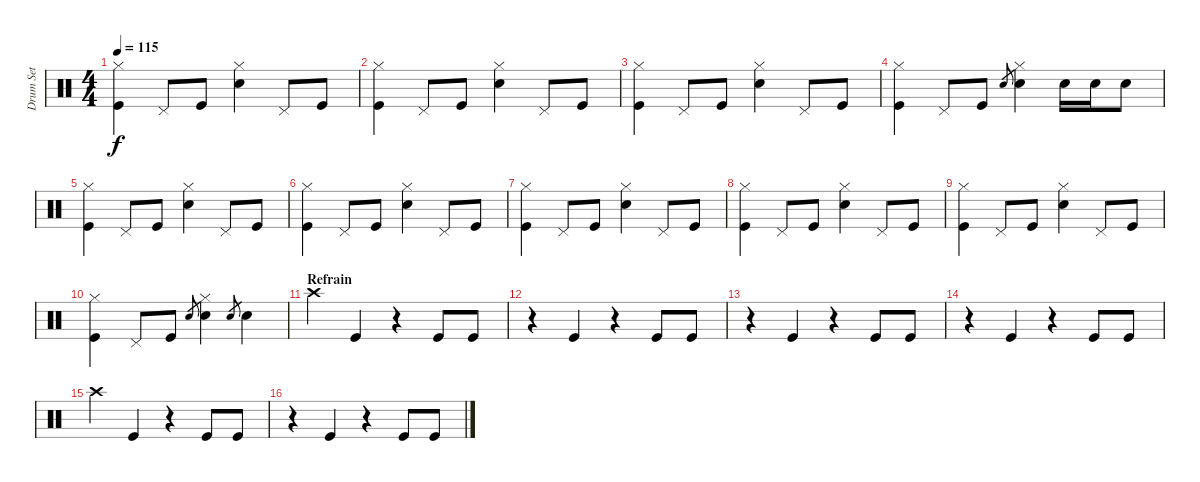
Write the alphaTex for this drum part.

\track ("Drum Set" "Drum Set") {instrument percussion}
\staff {score}
\articulation defaults
\ts (4 4)
\tempo 115
\clef neutral
\ks c
("Hi-Hat (closed)" "Kick (hit)").4{dy f} "Pedal Hi-Hat (hit)".8 "Kick (hit)".8 ("Hi-Hat (closed)" "Electric Snare (hit)").4 "Pedal Hi-Hat (hit)".8 "Kick (hit)".8 |
("Hi-Hat (closed)" "Kick (hit)").4 "Pedal Hi-Hat (hit)".8 "Kick (hit)".8 ("Hi-Hat (closed)" "Electric Snare (hit)").4 "Pedal Hi-Hat (hit)".8 "Kick (hit)".8 |
("Hi-Hat (closed)" "Kick (hit)").4 "Pedal Hi-Hat (hit)".8 "Kick (hit)".8 ("Hi-Hat (closed)" "Electric Snare (hit)").4 "Pedal Hi-Hat (hit)".8 "Kick (hit)".8 |
("Hi-Hat (closed)" "Kick (hit)").4 "Pedal Hi-Hat (hit)".8 "Kick (hit)".8 "Electric Snare (hit)".8{gr} ("Hi-Hat (closed)" "Electric Snare (hit)").4 "Electric Snare (hit)".16 "Electric Snare (hit)".16 "Electric Snare (hit)".8 |
("Hi-Hat (closed)" "Kick (hit)").4 "Pedal Hi-Hat (hit)".8 "Kick (hit)".8 ("Hi-Hat (closed)" "Electric Snare (hit)").4 "Pedal Hi-Hat (hit)".8 "Kick (hit)".8 |
("Hi-Hat (closed)" "Kick (hit)").4 "Pedal Hi-Hat (hit)".8 "Kick (hit)".8 ("Hi-Hat (closed)" "Electric Snare (hit)").4 "Pedal Hi-Hat (hit)".8 "Kick (hit)".8 |
("Hi-Hat (closed)" "Kick (hit)").4 "Pedal Hi-Hat (hit)".8 "Kick (hit)".8 ("Hi-Hat (closed)" "Electric Snare (hit)").4 "Pedal Hi-Hat (hit)".8 "Kick (hit)".8 |
("Hi-Hat (closed)" "Kick (hit)").4 "Pedal Hi-Hat (hit)".8 "Kick (hit)".8 ("Hi-Hat (closed)" "Electric Snare (hit)").4 "Pedal Hi-Hat (hit)".8 "Kick (hit)".8 |
("Hi-Hat (closed)" "Kick (hit)").4 "Pedal Hi-Hat (hit)".8 "Kick (hit)".8 ("Hi-Hat (closed)" "Electric Snare (hit)").4 "Pedal Hi-Hat (hit)".8 "Kick (hit)".8 |
("Hi-Hat (closed)" "Kick (hit)").4 "Pedal Hi-Hat (hit)".8 "Kick (hit)".8 "Electric Snare (hit)".8{gr} ("Hi-Hat (closed)" "Electric Snare (hit)").4 "Electric Snare (hit)".8{gr} "Electric Snare (hit)".4 |
\section ("" "Refrain")
"Crash high (hit)".4 "Kick (hit)".4 r.4 "Kick (hit)".8 "Kick (hit)".8 |
r.4 "Kick (hit)".4 r.4 "Kick (hit)".8 "Kick (hit)".8 |
r.4 "Kick (hit)".4 r.4 "Kick (hit)".8 "Kick (hit)".8 |
r.4 "Kick (hit)".4 r.4 "Kick (hit)".8 "Kick (hit)".8 |
"Crash high (hit)".4 "Kick (hit)".4 r.4 "Kick (hit)".8 "Kick (hit)".8 |
r.4 "Kick (hit)".4 r.4 "Kick (hit)".8 "Kick (hit)".8
